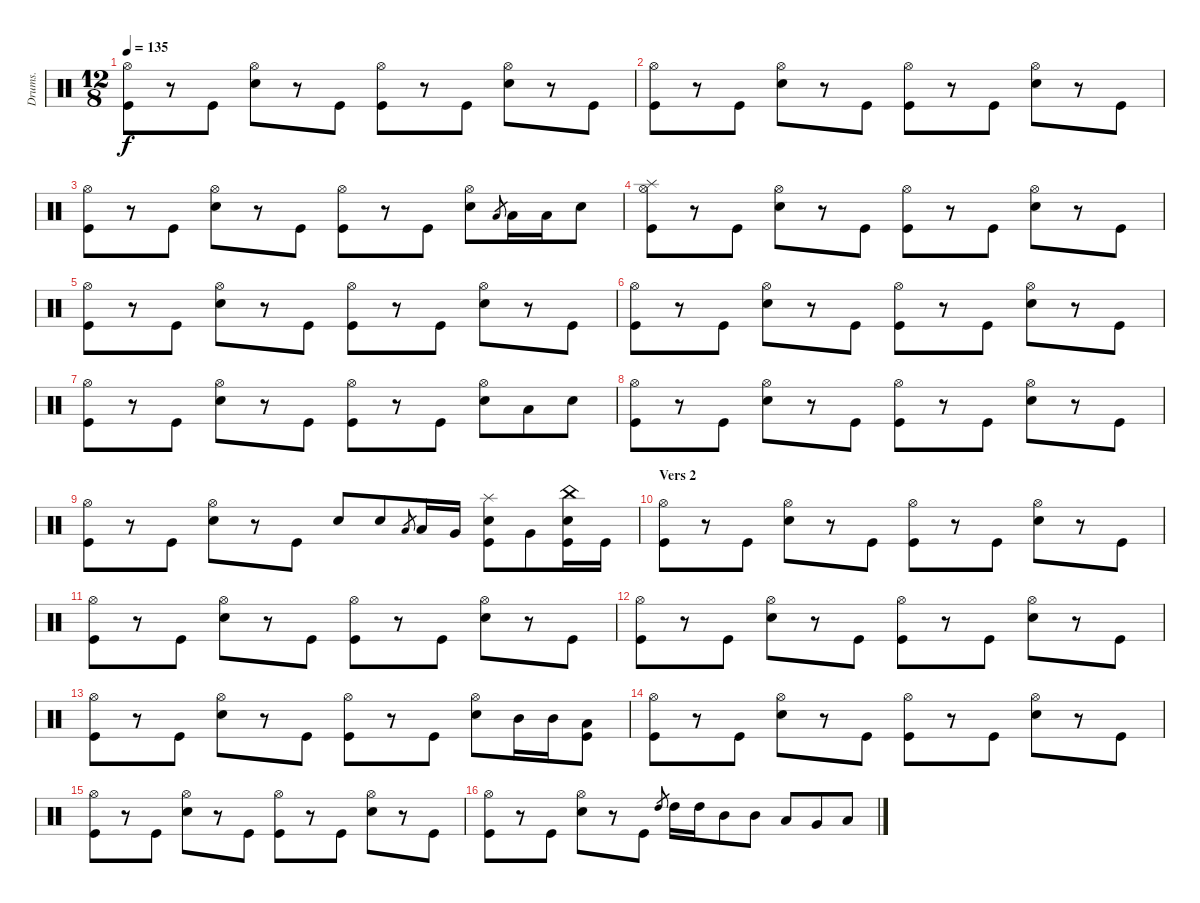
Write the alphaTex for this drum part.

\track ("Drums." "Drums.") {instrument percussion}
\staff {score}
\articulation defaults
\ts (12 8)
\tempo 135
\clef neutral
\ks c
("Hi-Hat (open)" "Kick (hit)").8{dy f} r.8 "Kick (hit)".8 ("Hi-Hat (open)" "Snare (hit) 2").8 r.8 "Kick (hit)".8 ("Hi-Hat (open)" "Kick (hit)").8 r.8 "Kick (hit)".8 ("Hi-Hat (open)" "Snare (hit) 2").8 r.8 "Kick (hit)".8 |
("Hi-Hat (open)" "Kick (hit)").8 r.8 "Kick (hit)".8 ("Hi-Hat (open)" "Snare (hit) 2").8 r.8 "Kick (hit)".8 ("Hi-Hat (open)" "Kick (hit)").8 r.8 "Kick (hit)".8 ("Hi-Hat (open)" "Snare (hit) 2").8 r.8 "Kick (hit)".8 |
("Hi-Hat (open)" "Kick (hit)").8 r.8 "Kick (hit)".8 ("Hi-Hat (open)" "Snare (hit) 2").8 r.8 "Kick (hit)".8 ("Hi-Hat (open)" "Kick (hit)").8 r.8 "Kick (hit)".8 ("Hi-Hat (open)" "Snare (hit) 2").8 "Low Tom (hit)".8{gr} "Low Tom (hit)".16 "Low Tom (hit)".16 "Snare (hit) 2".8 |
("Hi-Hat (open)" "Splash (hit)" "Kick (hit)").8 r.8 "Kick (hit)".8 ("Hi-Hat (open)" "Snare (hit) 2").8 r.8 "Kick (hit)".8 ("Hi-Hat (open)" "Kick (hit)").8 r.8 "Kick (hit)".8 ("Hi-Hat (open)" "Snare (hit) 2").8 r.8 "Kick (hit)".8 |
("Hi-Hat (open)" "Kick (hit)").8 r.8 "Kick (hit)".8 ("Hi-Hat (open)" "Snare (hit) 2").8 r.8 "Kick (hit)".8 ("Hi-Hat (open)" "Kick (hit)").8 r.8 "Kick (hit)".8 ("Hi-Hat (open)" "Snare (hit) 2").8 r.8 "Kick (hit)".8 |
("Hi-Hat (open)" "Kick (hit)").8 r.8 "Kick (hit)".8 ("Hi-Hat (open)" "Snare (hit) 2").8 r.8 "Kick (hit)".8 ("Hi-Hat (open)" "Kick (hit)").8 r.8 "Kick (hit)".8 ("Hi-Hat (open)" "Snare (hit) 2").8 r.8 "Kick (hit)".8 |
("Hi-Hat (open)" "Kick (hit)").8 r.8 "Kick (hit)".8 ("Hi-Hat (open)" "Snare (hit) 2").8 r.8 "Kick (hit)".8 ("Hi-Hat (open)" "Kick (hit)").8 r.8 "Kick (hit)".8 ("Hi-Hat (open)" "Snare (hit) 2").8 "Low Tom (hit)".8 "Snare (hit) 2".8 |
("Hi-Hat (open)" "Kick (hit)").8 r.8 "Kick (hit)".8 ("Hi-Hat (open)" "Snare (hit) 2").8 r.8 "Kick (hit)".8 ("Hi-Hat (open)" "Kick (hit)").8 r.8 "Kick (hit)".8 ("Hi-Hat (open)" "Snare (hit) 2").8 r.8 "Kick (hit)".8 |
("Hi-Hat (open)" "Kick (hit)").8 r.8 "Kick (hit)".8 ("Hi-Hat (open)" "Snare (hit) 2").8 r.8 "Kick (hit)".8 "Snare (hit) 2".8 "Snare (hit) 2".8 "Low Tom (hit)".8{gr} "Low Tom (hit)".16 "Very Low Tom (hit)".16 ("Splash (hit)" "Snare (hit) 2" "Kick (hit)").8 "Very Low Tom (hit)".8 ("China (hit)" "Snare (hit) 2" "Kick (hit)").16 "Kick (hit)".16 |
\section ("" "Vers 2")
("Hi-Hat (open)" "Kick (hit)").8 r.8 "Kick (hit)".8 ("Hi-Hat (open)" "Snare (hit) 2").8 r.8 "Kick (hit)".8 ("Hi-Hat (open)" "Kick (hit)").8 r.8 "Kick (hit)".8 ("Hi-Hat (open)" "Snare (hit) 2").8 r.8 "Kick (hit)".8 |
("Hi-Hat (open)" "Kick (hit)").8 r.8 "Kick (hit)".8 ("Hi-Hat (open)" "Snare (hit) 2").8 r.8 "Kick (hit)".8 ("Hi-Hat (open)" "Kick (hit)").8 r.8 "Kick (hit)".8 ("Hi-Hat (open)" "Snare (hit) 2").8 r.8 "Kick (hit)".8 |
("Hi-Hat (open)" "Kick (hit)").8 r.8 "Kick (hit)".8 ("Hi-Hat (open)" "Snare (hit) 2").8 r.8 "Kick (hit)".8 ("Hi-Hat (open)" "Kick (hit)").8 r.8 "Kick (hit)".8 ("Hi-Hat (open)" "Snare (hit) 2").8 r.8 "Kick (hit)".8 |
("Hi-Hat (open)" "Kick (hit)").8 r.8 "Kick (hit)".8 ("Hi-Hat (open)" "Snare (hit) 2").8 r.8 "Kick (hit)".8 ("Hi-Hat (open)" "Kick (hit)").8 r.8 "Kick (hit)".8 ("Hi-Hat (open)" "Snare (hit) 2").8 "Mid Tom (hit)".16 "Mid Tom (hit)".16 ("Low Tom (hit)" "Kick (hit)").8 |
("Hi-Hat (open)" "Kick (hit)").8 r.8 "Kick (hit)".8 ("Hi-Hat (open)" "Snare (hit) 2").8 r.8 "Kick (hit)".8 ("Hi-Hat (open)" "Kick (hit)").8 r.8 "Kick (hit)".8 ("Hi-Hat (open)" "Snare (hit) 2").8 r.8 "Kick (hit)".8 |
("Hi-Hat (open)" "Kick (hit)").8 r.8 "Kick (hit)".8 ("Hi-Hat (open)" "Snare (hit) 2").8 r.8 "Kick (hit)".8 ("Hi-Hat (open)" "Kick (hit)").8 r.8 "Kick (hit)".8 ("Hi-Hat (open)" "Snare (hit) 2").8 r.8 "Kick (hit)".8 |
("Hi-Hat (open)" "Kick (hit)").8 r.8 "Kick (hit)".8 ("Hi-Hat (open)" "Snare (hit) 2").8 r.8 "Kick (hit)".8 "High Tom (hit)".8{gr} "High Tom (hit)".16 "High Tom (hit)".16 "Mid Tom (hit)".8 "Mid Tom (hit)".8 "Low Tom (hit)".8 "Very Low Tom (hit)".8 "Low Floor Tom (hit)".8
